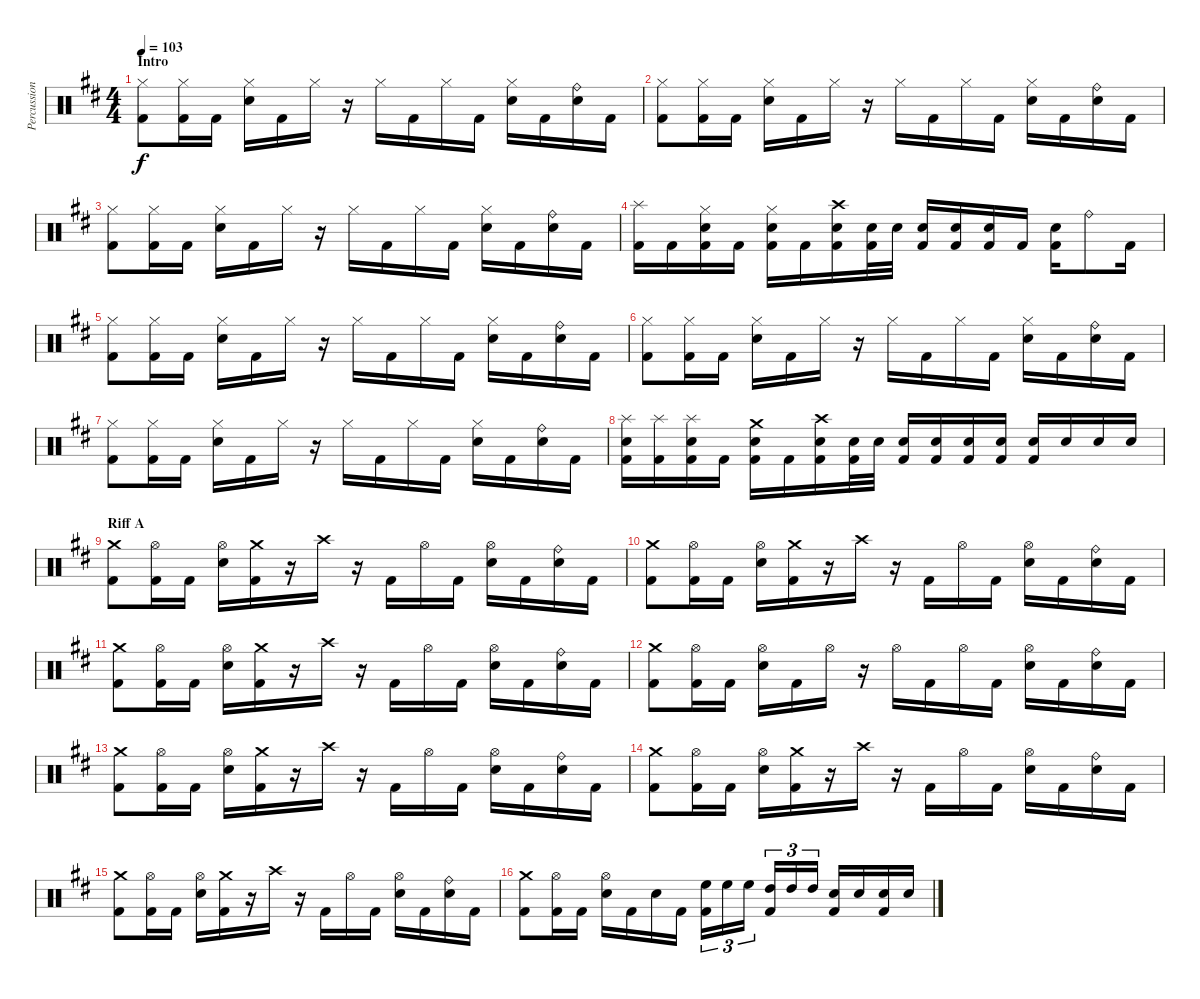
\track ("Percussion" "Percussion") {instrument percussion}
\staff {score}
\articulation defaults
\ts (4 4)
\section ("" "Intro")
\tempo 103
\clef neutral
\ks d
("Hi-Hat (closed)" "Kick (hit) 2").8{dy f} ("Hi-Hat (closed)" "Kick (hit) 2").16 "Kick (hit) 2".16 ("Hi-Hat (closed)" "Snare (hit) 2").16 "Kick (hit) 2".16 "Hi-Hat (closed)".16 r.16 "Hi-Hat (closed)".16 "Kick (hit) 2".16 "Hi-Hat (closed)".16 "Kick (hit) 2".16 ("Hi-Hat (closed)" "Snare (hit) 2").16 "Kick (hit) 2".16 ("Ride (bell)" "Snare (hit) 2").16 "Kick (hit) 2".16 |
("Hi-Hat (closed)" "Kick (hit) 2").8 ("Hi-Hat (closed)" "Kick (hit) 2").16 "Kick (hit) 2".16 ("Hi-Hat (closed)" "Snare (hit) 2").16 "Kick (hit) 2".16 "Hi-Hat (closed)".16 r.16 "Hi-Hat (closed)".16 "Kick (hit) 2".16 "Hi-Hat (closed)".16 "Kick (hit) 2".16 ("Hi-Hat (closed)" "Snare (hit) 2").16 "Kick (hit) 2".16 ("Ride (bell)" "Snare (hit) 2").16 "Kick (hit) 2".16 |
("Hi-Hat (closed)" "Kick (hit) 2").8 ("Hi-Hat (closed)" "Kick (hit) 2").16 "Kick (hit) 2".16 ("Hi-Hat (closed)" "Snare (hit) 2").16 "Kick (hit) 2".16 "Hi-Hat (closed)".16 r.16 "Hi-Hat (closed)".16 "Kick (hit) 2".16 "Hi-Hat (closed)".16 "Kick (hit) 2".16 ("Hi-Hat (closed)" "Snare (hit) 2").16 "Kick (hit) 2".16 ("Ride (bell)" "Snare (hit) 2").16 "Kick (hit) 2".16 |
("Splash (hit)" "Kick (hit) 2").16 "Kick (hit) 2".16 ("Hi-Hat (closed)" "Snare (hit) 2" "Kick (hit) 2").16 "Kick (hit) 2".16 ("Hi-Hat (closed)" "Snare (hit) 2" "Kick (hit) 2").16 "Kick (hit) 2".16 ("Crash high (hit)" "Snare (hit) 2" "Kick (hit) 2").16 ("Snare (hit) 2" "Kick (hit) 2").32 "Snare (hit) 2".32 ("Snare (hit) 2" "Kick (hit) 2").16 ("Snare (hit) 2" "Kick (hit) 2").16 ("Snare (hit) 2" "Kick (hit) 2").16 "Kick (hit) 2".16 ("Snare (hit) 2" "Kick (hit) 2").16 "Ride (bell)".8 "Kick (hit) 2".16 |
("Hi-Hat (closed)" "Kick (hit) 2").8 ("Hi-Hat (closed)" "Kick (hit) 2").16 "Kick (hit) 2".16 ("Hi-Hat (closed)" "Snare (hit) 2").16 "Kick (hit) 2".16 "Hi-Hat (closed)".16 r.16 "Hi-Hat (closed)".16 "Kick (hit) 2".16 "Hi-Hat (closed)".16 "Kick (hit) 2".16 ("Hi-Hat (closed)" "Snare (hit) 2").16 "Kick (hit) 2".16 ("Ride (bell)" "Snare (hit) 2").16 "Kick (hit) 2".16 |
("Hi-Hat (closed)" "Kick (hit) 2").8 ("Hi-Hat (closed)" "Kick (hit) 2").16 "Kick (hit) 2".16 ("Hi-Hat (closed)" "Snare (hit) 2").16 "Kick (hit) 2".16 "Hi-Hat (closed)".16 r.16 "Hi-Hat (closed)".16 "Kick (hit) 2".16 "Hi-Hat (closed)".16 "Kick (hit) 2".16 ("Hi-Hat (closed)" "Snare (hit) 2").16 "Kick (hit) 2".16 ("Ride (bell)" "Snare (hit) 2").16 "Kick (hit) 2".16 |
("Hi-Hat (closed)" "Kick (hit) 2").8 ("Hi-Hat (closed)" "Kick (hit) 2").16 "Kick (hit) 2".16 ("Hi-Hat (closed)" "Snare (hit) 2").16 "Kick (hit) 2".16 "Hi-Hat (closed)".16 r.16 "Hi-Hat (closed)".16 "Kick (hit) 2".16 "Hi-Hat (closed)".16 "Kick (hit) 2".16 ("Hi-Hat (closed)" "Snare (hit) 2").16 "Kick (hit) 2".16 ("Ride (bell)" "Snare (hit) 2").16 "Kick (hit) 2".16 |
("Splash (hit)" "Snare (hit) 2" "Kick (hit) 2").16 ("Splash (hit)" "Kick (hit) 2").16 ("Splash (hit)" "Snare (hit) 2" "Kick (hit) 2").16 "Kick (hit) 2".16 ("Crash medium (hit)" "Snare (hit) 2" "Kick (hit) 2").16 "Kick (hit) 2".16 ("Crash high (hit)" "Snare (hit) 2" "Kick (hit) 2").16 ("Snare (hit) 2" "Kick (hit) 2").32 "Snare (hit) 2".32 ("Snare (hit) 2" "Kick (hit) 2").16 ("Snare (hit) 2" "Kick (hit) 2").16 ("Snare (hit) 2" "Kick (hit) 2").16 ("Snare (hit) 2" "Kick (hit) 2").16 ("Snare (hit) 2" "Kick (hit) 2").16 "Snare (hit) 2".16 "Snare (hit) 2".16 "Snare (hit) 2".16 |
\section ("" "Riff A")
("Crash medium (hit)" "Kick (hit) 2").8 ("Hi-Hat (open)" "Kick (hit) 2").16 "Kick (hit) 2".16 ("Hi-Hat (open)" "Snare (hit) 2").16 ("Crash medium (hit)" "Kick (hit) 2").16 r.16 "Crash high (hit)".16 r.16 "Kick (hit) 2".16 "Hi-Hat (open)".16 "Kick (hit) 2".16 ("Hi-Hat (open)" "Snare (hit) 2").16 "Kick (hit) 2".16 ("Ride (bell)" "Snare (hit) 2").16 "Kick (hit) 2".16 |
("Crash medium (hit)" "Kick (hit) 2").8 ("Hi-Hat (open)" "Kick (hit) 2").16 "Kick (hit) 2".16 ("Hi-Hat (open)" "Snare (hit) 2").16 ("Crash medium (hit)" "Kick (hit) 2").16 r.16 "Crash high (hit)".16 r.16 "Kick (hit) 2".16 "Hi-Hat (open)".16 "Kick (hit) 2".16 ("Hi-Hat (open)" "Snare (hit) 2").16 "Kick (hit) 2".16 ("Ride (bell)" "Snare (hit) 2").16 "Kick (hit) 2".16 |
("Crash medium (hit)" "Kick (hit) 2").8 ("Hi-Hat (open)" "Kick (hit) 2").16 "Kick (hit) 2".16 ("Hi-Hat (open)" "Snare (hit) 2").16 ("Crash medium (hit)" "Kick (hit) 2").16 r.16 "Crash high (hit)".16 r.16 "Kick (hit) 2".16 "Hi-Hat (open)".16 "Kick (hit) 2".16 ("Hi-Hat (open)" "Snare (hit) 2").16 "Kick (hit) 2".16 ("Ride (bell)" "Snare (hit) 2").16 "Kick (hit) 2".16 |
("Crash medium (hit)" "Kick (hit) 2").8 ("Hi-Hat (open)" "Kick (hit) 2").16 "Kick (hit) 2".16 ("Hi-Hat (open)" "Snare (hit) 2").16 "Kick (hit) 2".16 "Hi-Hat (open)".16 r.16 "Hi-Hat (open)".16 "Kick (hit) 2".16 "Hi-Hat (open)".16 "Kick (hit) 2".16 ("Hi-Hat (open)" "Snare (hit) 2").16 "Kick (hit) 2".16 ("Ride (bell)" "Snare (hit) 2").16 "Kick (hit) 2".16 |
("Crash medium (hit)" "Kick (hit) 2").8 ("Hi-Hat (open)" "Kick (hit) 2").16 "Kick (hit) 2".16 ("Hi-Hat (open)" "Snare (hit) 2").16 ("Crash medium (hit)" "Kick (hit) 2").16 r.16 "Crash high (hit)".16 r.16 "Kick (hit) 2".16 "Hi-Hat (open)".16 "Kick (hit) 2".16 ("Hi-Hat (open)" "Snare (hit) 2").16 "Kick (hit) 2".16 ("Ride (bell)" "Snare (hit) 2").16 "Kick (hit) 2".16 |
("Crash medium (hit)" "Kick (hit) 2").8 ("Hi-Hat (open)" "Kick (hit) 2").16 "Kick (hit) 2".16 ("Hi-Hat (open)" "Snare (hit) 2").16 ("Crash medium (hit)" "Kick (hit) 2").16 r.16 "Crash high (hit)".16 r.16 "Kick (hit) 2".16 "Hi-Hat (open)".16 "Kick (hit) 2".16 ("Hi-Hat (open)" "Snare (hit) 2").16 "Kick (hit) 2".16 ("Ride (bell)" "Snare (hit) 2").16 "Kick (hit) 2".16 |
("Crash medium (hit)" "Kick (hit) 2").8 ("Hi-Hat (open)" "Kick (hit) 2").16 "Kick (hit) 2".16 ("Hi-Hat (open)" "Snare (hit) 2").16 ("Crash medium (hit)" "Kick (hit) 2").16 r.16 "Crash high (hit)".16 r.16 "Kick (hit) 2".16 "Hi-Hat (open)".16 "Kick (hit) 2".16 ("Hi-Hat (open)" "Snare (hit) 2").16 "Kick (hit) 2".16 ("Ride (bell)" "Snare (hit) 2").16 "Kick (hit) 2".16 |
("Crash medium (hit)" "Kick (hit) 2").8 ("Hi-Hat (open)" "Kick (hit) 2").16 "Kick (hit) 2".16 ("Hi-Hat (open)" "Snare (hit) 2").16 "Kick (hit) 2".16 "Snare (hit) 2".16 "Kick (hit) 2".16 ("High Floor Tom (hit)" "Kick (hit) 2").16{tu (3 2)} "High Floor Tom (hit)".16{tu (3 2)} "High Floor Tom (hit)".16{tu (3 2)} ("High Tom (hit)" "Kick (hit) 2").16{tu (3 2)} "High Tom (hit)".16{tu (3 2)} "High Tom (hit)".16{tu (3 2)} ("Snare (hit) 2" "Kick (hit) 2").16 "Snare (hit) 2".16 ("Snare (hit) 2" "Kick (hit) 2").16 "Snare (hit) 2".16
